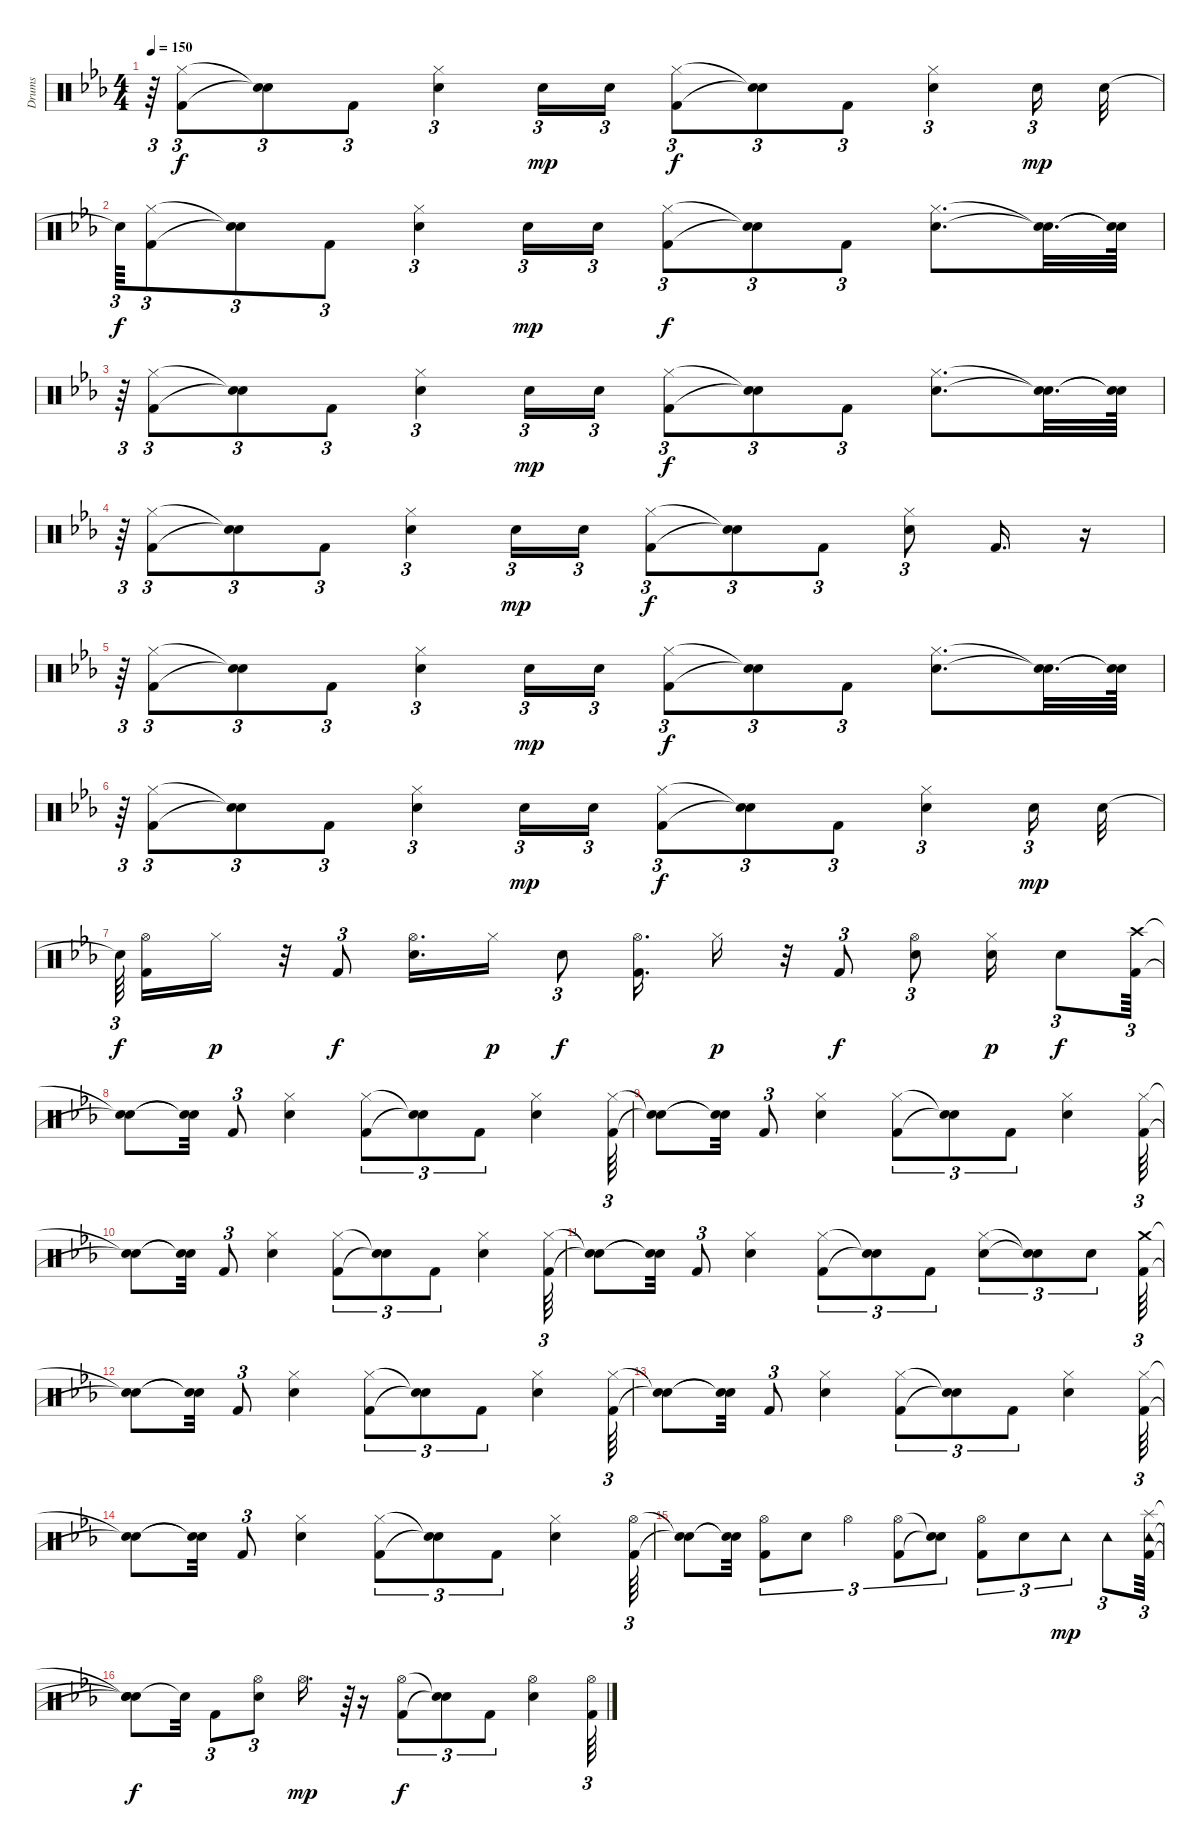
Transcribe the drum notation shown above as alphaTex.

\track ("Drums" "Drums") {instrument percussion}
\staff {score}
\articulation defaults
\ts (4 4)
\tempo 150
\clef neutral
\ks cminor
r.64{tu (3 2) dy f} ("Kick (hit) 2" "Hi-Hat (closed)").8{tu (3 2)} ("Snare (hit)"{t} "Snare (hit)"{t}).8{tu (3 2)} "Kick (hit) 2".8{tu (3 2)} ("Hi-Hat (closed)" "Electric Snare (hit)").4{tu (3 2)} "Electric Snare (hit)".16{tu (3 2) dy mp} "Electric Snare (hit)".16{tu (3 2)} ("Hi-Hat (closed)" "Kick (hit) 2").8{tu (3 2) dy f} ("Snare (hit)"{t} "Snare (hit)"{t}).8{tu (3 2)} "Kick (hit) 2".8{tu (3 2)} ("Hi-Hat (closed)" "Electric Snare (hit)").4{tu (3 2)} "Electric Snare (hit)".16{tu (3 2) dy mp} "Electric Snare (hit)".32 |
"Snare (hit)"{t}.64{tu (3 2) dy f} ("Hi-Hat (closed)" "Kick (hit) 2").8{tu (3 2)} ("Snare (hit)"{t} "Snare (hit)"{t}).8{tu (3 2)} "Kick (hit) 2".8{tu (3 2)} ("Hi-Hat (closed)" "Electric Snare (hit)").4{tu (3 2)} "Electric Snare (hit)".16{tu (3 2) dy mp} "Electric Snare (hit)".16{tu (3 2)} ("Hi-Hat (closed)" "Kick (hit) 2").8{tu (3 2) dy f} ("Snare (hit)"{t} "Snare (hit)"{t}).8{tu (3 2)} "Kick (hit) 2".8{tu (3 2)} ("Hi-Hat (closed)" "Electric Snare (hit)").8{d} ("Snare (hit)"{t} "Snare (hit)"{t}).32{d} ("Snare (hit)"{t} "Snare (hit)"{t}).64 |
r.64{tu (3 2)} ("Kick (hit) 2" "Hi-Hat (closed)").8{tu (3 2)} ("Snare (hit)"{t} "Snare (hit)"{t}).8{tu (3 2)} "Kick (hit) 2".8{tu (3 2)} ("Hi-Hat (closed)" "Electric Snare (hit)").4{tu (3 2)} "Electric Snare (hit)".16{tu (3 2) dy mp} "Electric Snare (hit)".16{tu (3 2)} ("Hi-Hat (closed)" "Kick (hit) 2").8{tu (3 2) dy f} ("Snare (hit)"{t} "Snare (hit)"{t}).8{tu (3 2)} "Kick (hit) 2".8{tu (3 2)} ("Hi-Hat (closed)" "Electric Snare (hit)").8{d} ("Snare (hit)"{t} "Snare (hit)"{t}).32{d} ("Snare (hit)"{t} "Snare (hit)"{t}).64 |
r.64{tu (3 2)} ("Kick (hit) 2" "Hi-Hat (closed)").8{tu (3 2)} ("Snare (hit)"{t} "Snare (hit)"{t}).8{tu (3 2)} "Kick (hit) 2".8{tu (3 2)} ("Hi-Hat (closed)" "Electric Snare (hit)").4{tu (3 2)} "Electric Snare (hit)".16{tu (3 2) dy mp} "Electric Snare (hit)".16{tu (3 2)} ("Hi-Hat (closed)" "Kick (hit) 2").8{tu (3 2) dy f} ("Snare (hit)"{t} "Snare (hit)"{t}).8{tu (3 2)} "Kick (hit) 2".8{tu (3 2)} ("Hi-Hat (closed)" "Electric Snare (hit)").8{tu (3 2)} "Kick (hit) 2".16{d} r.16 |
r.64{tu (3 2)} ("Kick (hit) 2" "Hi-Hat (closed)").8{tu (3 2)} ("Snare (hit)"{t} "Snare (hit)"{t}).8{tu (3 2)} "Kick (hit) 2".8{tu (3 2)} ("Hi-Hat (closed)" "Electric Snare (hit)").4{tu (3 2)} "Electric Snare (hit)".16{tu (3 2) dy mp} "Electric Snare (hit)".16{tu (3 2)} ("Hi-Hat (closed)" "Kick (hit) 2").8{tu (3 2) dy f} ("Snare (hit)"{t} "Snare (hit)"{t}).8{tu (3 2)} "Kick (hit) 2".8{tu (3 2)} ("Hi-Hat (closed)" "Electric Snare (hit)").8{d} ("Snare (hit)"{t} "Snare (hit)"{t}).32{d} ("Snare (hit)"{t} "Snare (hit)"{t}).64 |
r.64{tu (3 2)} ("Kick (hit) 2" "Hi-Hat (closed)").8{tu (3 2)} ("Snare (hit)"{t} "Snare (hit)"{t}).8{tu (3 2)} "Kick (hit) 2".8{tu (3 2)} ("Hi-Hat (closed)" "Electric Snare (hit)").4{tu (3 2)} "Electric Snare (hit)".16{tu (3 2) dy mp} "Electric Snare (hit)".16{tu (3 2)} ("Hi-Hat (closed)" "Kick (hit) 2").8{tu (3 2) dy f} ("Snare (hit)"{t} "Snare (hit)"{t}).8{tu (3 2)} "Kick (hit) 2".8{tu (3 2)} ("Hi-Hat (closed)" "Electric Snare (hit)").4{tu (3 2)} "Electric Snare (hit)".16{tu (3 2) dy mp} "Electric Snare (hit)".32 |
"Snare (hit)"{t}.64{tu (3 2) dy f beam splitsecondary} ("Kick (hit) 2" "Hi-Hat (open)").16 "Hi-Hat (closed)".16{dy p} r.32 "Kick (hit) 2".8{tu (3 2) dy f} ("Electric Snare (hit)" "Hi-Hat (open)").16{d} "Hi-Hat (closed)".16{dy p} "Electric Snare (hit)".8{tu (3 2) dy f} ("Kick (hit) 2" "Hi-Hat (open)").16{d} "Hi-Hat (closed)".16{dy p} r.32 "Kick (hit) 2".8{tu (3 2) dy f} ("Hi-Hat (open)" "Electric Snare (hit)").8{tu (3 2)} ("Electric Snare (hit)" "Hi-Hat (closed)").16{dy p} "Electric Snare (hit)".8{tu (3 2) dy f} ("Kick (hit) 2" "Crash high (hit)").64{tu (3 2)} |
("Snare (hit)"{t} "Snare (hit)"{t}).8 ("Snare (hit)"{t} "Snare (hit)"{t}).32 "Kick (hit) 2".8{tu (3 2)} ("Hi-Hat (closed)" "Electric Snare (hit)").4 ("Hi-Hat (closed)" "Kick (hit) 2").8{tu (3 2)} ("Snare (hit)"{t} "Snare (hit)"{t}).8{tu (3 2)} "Kick (hit) 2".8{tu (3 2)} ("Hi-Hat (closed)" "Electric Snare (hit)").4 ("Kick (hit) 2" "Hi-Hat (closed)").64{tu (3 2)} |
("Snare (hit)"{t} "Snare (hit)"{t}).8 ("Snare (hit)"{t} "Snare (hit)"{t}).32 "Kick (hit) 2".8{tu (3 2)} ("Hi-Hat (closed)" "Electric Snare (hit)").4 ("Hi-Hat (closed)" "Kick (hit) 2").8{tu (3 2)} ("Snare (hit)"{t} "Snare (hit)"{t}).8{tu (3 2)} "Kick (hit) 2".8{tu (3 2)} ("Hi-Hat (closed)" "Electric Snare (hit)").4 ("Kick (hit) 2" "Hi-Hat (closed)").64{tu (3 2)} |
("Snare (hit)"{t} "Snare (hit)"{t}).8 ("Snare (hit)"{t} "Snare (hit)"{t}).32 "Kick (hit) 2".8{tu (3 2)} ("Hi-Hat (closed)" "Electric Snare (hit)").4 ("Hi-Hat (closed)" "Kick (hit) 2").8{tu (3 2)} ("Snare (hit)"{t} "Snare (hit)"{t}).8{tu (3 2)} "Kick (hit) 2".8{tu (3 2)} ("Hi-Hat (closed)" "Electric Snare (hit)").4 ("Kick (hit) 2" "Hi-Hat (closed)").64{tu (3 2)} |
("Snare (hit)"{t} "Snare (hit)"{t}).8 ("Snare (hit)"{t} "Snare (hit)"{t}).32 "Kick (hit) 2".8{tu (3 2)} ("Hi-Hat (closed)" "Electric Snare (hit)").4 ("Hi-Hat (closed)" "Kick (hit) 2").8{tu (3 2)} ("Snare (hit)"{t} "Snare (hit)"{t}).8{tu (3 2)} "Kick (hit) 2".8{tu (3 2)} ("Hi-Hat (closed)" "Electric Snare (hit)").8{tu (3 2)} ("Snare (hit)"{t} "Snare (hit)"{t}).8{tu (3 2)} "Electric Snare (hit)".8{tu (3 2)} ("Kick (hit) 2" "Crash medium (hit)").64{tu (3 2)} |
("Snare (hit)"{t} "Snare (hit)"{t}).8 ("Snare (hit)"{t} "Snare (hit)"{t}).32 "Kick (hit) 2".8{tu (3 2)} ("Hi-Hat (closed)" "Electric Snare (hit)").4 ("Hi-Hat (closed)" "Kick (hit) 2").8{tu (3 2)} ("Snare (hit)"{t} "Snare (hit)"{t}).8{tu (3 2)} "Kick (hit) 2".8{tu (3 2)} ("Hi-Hat (closed)" "Electric Snare (hit)").4 ("Kick (hit) 2" "Hi-Hat (closed)").64{tu (3 2)} |
("Snare (hit)"{t} "Snare (hit)"{t}).8 ("Snare (hit)"{t} "Snare (hit)"{t}).32 "Kick (hit) 2".8{tu (3 2)} ("Hi-Hat (closed)" "Electric Snare (hit)").4 ("Hi-Hat (closed)" "Kick (hit) 2").8{tu (3 2)} ("Snare (hit)"{t} "Snare (hit)"{t}).8{tu (3 2)} "Kick (hit) 2".8{tu (3 2)} ("Hi-Hat (closed)" "Electric Snare (hit)").4 ("Kick (hit) 2" "Hi-Hat (closed)").64{tu (3 2)} |
("Snare (hit)"{t} "Snare (hit)"{t}).8 ("Snare (hit)"{t} "Snare (hit)"{t}).32 "Kick (hit) 2".8{tu (3 2)} ("Hi-Hat (closed)" "Electric Snare (hit)").4 ("Hi-Hat (closed)" "Kick (hit) 2").8{tu (3 2)} ("Snare (hit)"{t} "Snare (hit)"{t}).8{tu (3 2)} "Kick (hit) 2".8{tu (3 2)} ("Hi-Hat (closed)" "Electric Snare (hit)").4 ("Kick (hit) 2" "Hi-Hat (open)").64{tu (3 2)} |
("Snare (hit)"{t} "Snare (hit)"{t}).8 ("Snare (hit)"{t} "Snare (hit)"{t}).32 ("Kick (hit) 2" "Hi-Hat (open)").8{tu (3 2)} "Electric Snare (hit)".8{tu (3 2)} "Hi-Hat (open)".4{tu (3 2)} ("Kick (hit) 2" "Hi-Hat (open)").8{tu (3 2)} ("Snare (hit)"{t} "Snare (hit)"{t}).8{tu (3 2)} ("Kick (hit) 2" "Hi-Hat (open)").8{tu (3 2)} "Electric Snare (hit)".8{tu (3 2)} "Tambourine (hit)".8{tu (3 2) dy mp} "Tambourine (hit)".8{tu (3 2)} ("Kick (hit) 2" "Splash (hit)" "Tambourine (hit)").64{tu (3 2)} |
("Snare (hit)"{t} "Snare (hit)"{t} "Snare (hit)"{t}).8{dy f} "Snare (hit)"{t}.32 "Kick (hit) 2".8{tu (3 2)} ("Electric Snare (hit)" "Hi-Hat (open)").8{tu (3 2)} "Hi-Hat (open)".16{d dy mp} r.64{tu (3 2)} r.16 ("Kick (hit) 2" "Hi-Hat (open)").8{tu (3 2) dy f} ("Snare (hit)"{t} "Snare (hit)"{t}).8{tu (3 2)} "Kick (hit) 2".8{tu (3 2)} ("Electric Snare (hit)" "Hi-Hat (open)").4 ("Kick (hit) 2" "Hi-Hat (open)").64{tu (3 2)}
